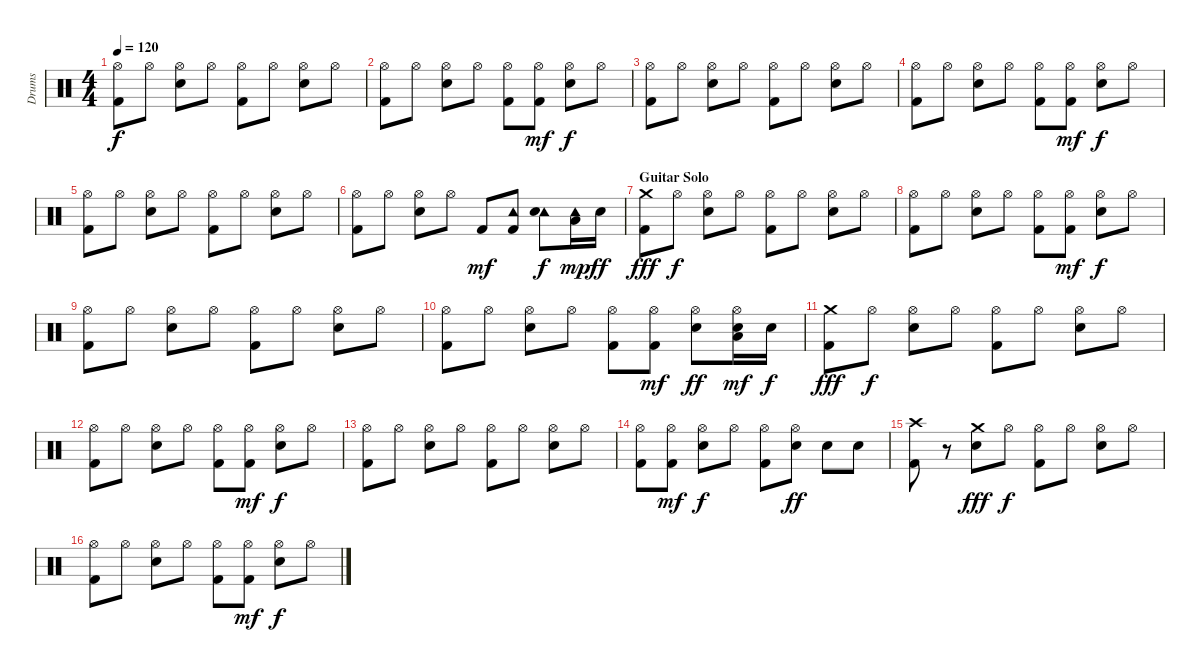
\track ("Drums" "Drums") {instrument percussion}
\staff {score}
\articulation defaults
\ts (4 4)
\tempo 120
\clef neutral
\ks c
("Hi-Hat (open)" "Kick (hit) 2").8{dy f} "Hi-Hat (open)".8 ("Hi-Hat (open)" "Electric Snare (hit)").8 "Hi-Hat (open)".8 ("Hi-Hat (open)" "Kick (hit) 2").8 "Hi-Hat (open)".8 ("Hi-Hat (open)" "Electric Snare (hit)").8 "Hi-Hat (open)".8 |
("Hi-Hat (open)" "Kick (hit) 2").8 "Hi-Hat (open)".8 ("Hi-Hat (open)" "Electric Snare (hit)").8 "Hi-Hat (open)".8 ("Hi-Hat (open)" "Kick (hit) 2").8 ("Hi-Hat (open)" "Kick (hit) 2").8{dy mf} ("Hi-Hat (open)" "Electric Snare (hit)").8{dy f} "Hi-Hat (open)".8 |
("Hi-Hat (open)" "Kick (hit) 2").8 "Hi-Hat (open)".8 ("Hi-Hat (open)" "Electric Snare (hit)").8 "Hi-Hat (open)".8 ("Hi-Hat (open)" "Kick (hit) 2").8 "Hi-Hat (open)".8 ("Hi-Hat (open)" "Electric Snare (hit)").8 "Hi-Hat (open)".8 |
("Hi-Hat (open)" "Kick (hit) 2").8 "Hi-Hat (open)".8 ("Hi-Hat (open)" "Electric Snare (hit)").8 "Hi-Hat (open)".8 ("Hi-Hat (open)" "Kick (hit) 2").8 ("Hi-Hat (open)" "Kick (hit) 2").8{dy mf} ("Hi-Hat (open)" "Electric Snare (hit)").8{dy f} "Hi-Hat (open)".8 |
("Hi-Hat (open)" "Kick (hit) 2").8 "Hi-Hat (open)".8 ("Hi-Hat (open)" "Electric Snare (hit)").8 "Hi-Hat (open)".8 ("Hi-Hat (open)" "Kick (hit) 2").8 "Hi-Hat (open)".8 ("Hi-Hat (open)" "Electric Snare (hit)").8 "Hi-Hat (open)".8 |
("Hi-Hat (open)" "Kick (hit) 2").8 "Hi-Hat (open)".8 ("Hi-Hat (open)" "Electric Snare (hit)").8 "Hi-Hat (open)".8 "Kick (hit) 2".8{dy mf} ("Tambourine (hit)" "Kick (hit) 2").8 ("Tambourine (hit)" "Electric Snare (hit)").8{dy f} ("Low Tom (hit)" "Tambourine (hit)").16{dy mp} "Electric Snare (hit)".16{dy ff} |
\section ("" "Guitar Solo")
("Crash medium (hit)" "Kick (hit) 2").8{dy fff} "Hi-Hat (open)".8{dy f} ("Hi-Hat (open)" "Electric Snare (hit)").8 "Hi-Hat (open)".8 ("Hi-Hat (open)" "Kick (hit) 2").8 "Hi-Hat (open)".8 ("Hi-Hat (open)" "Electric Snare (hit)").8 "Hi-Hat (open)".8 |
("Hi-Hat (open)" "Kick (hit) 2").8 "Hi-Hat (open)".8 ("Hi-Hat (open)" "Electric Snare (hit)").8 "Hi-Hat (open)".8 ("Hi-Hat (open)" "Kick (hit) 2").8 ("Hi-Hat (open)" "Kick (hit) 2").8{dy mf} ("Hi-Hat (open)" "Electric Snare (hit)").8{dy f} "Hi-Hat (open)".8 |
("Hi-Hat (open)" "Kick (hit) 2").8 "Hi-Hat (open)".8 ("Hi-Hat (open)" "Electric Snare (hit)").8 "Hi-Hat (open)".8 ("Hi-Hat (open)" "Kick (hit) 2").8 "Hi-Hat (open)".8 ("Hi-Hat (open)" "Electric Snare (hit)").8 "Hi-Hat (open)".8 |
("Hi-Hat (open)" "Kick (hit) 2").8 "Hi-Hat (open)".8 ("Hi-Hat (open)" "Electric Snare (hit)").8 "Hi-Hat (open)".8 ("Hi-Hat (open)" "Kick (hit) 2").8 ("Hi-Hat (open)" "Kick (hit) 2").8{dy mf} ("Hi-Hat (open)" "Electric Snare (hit)").8{dy ff} ("Hi-Hat (open)" "Electric Snare (hit)" "Low Tom (hit)").16{dy mf} "Electric Snare (hit)".16{dy f} |
("Crash medium (hit)" "Kick (hit) 2").8{dy fff} "Hi-Hat (open)".8{dy f} ("Hi-Hat (open)" "Electric Snare (hit)").8 "Hi-Hat (open)".8 ("Hi-Hat (open)" "Kick (hit) 2").8 "Hi-Hat (open)".8 ("Hi-Hat (open)" "Electric Snare (hit)").8 "Hi-Hat (open)".8 |
("Hi-Hat (open)" "Kick (hit) 2").8 "Hi-Hat (open)".8 ("Hi-Hat (open)" "Electric Snare (hit)").8 "Hi-Hat (open)".8 ("Hi-Hat (open)" "Kick (hit) 2").8 ("Hi-Hat (open)" "Kick (hit) 2").8{dy mf} ("Hi-Hat (open)" "Electric Snare (hit)").8{dy f} "Hi-Hat (open)".8 |
("Hi-Hat (open)" "Kick (hit) 2").8 "Hi-Hat (open)".8 ("Hi-Hat (open)" "Electric Snare (hit)").8 "Hi-Hat (open)".8 ("Hi-Hat (open)" "Kick (hit) 2").8 "Hi-Hat (open)".8 ("Hi-Hat (open)" "Electric Snare (hit)").8 "Hi-Hat (open)".8 |
("Hi-Hat (open)" "Kick (hit) 2").8 ("Hi-Hat (open)" "Kick (hit) 2").8{dy mf} ("Hi-Hat (open)" "Electric Snare (hit)").8{dy f} "Hi-Hat (open)".8 ("Hi-Hat (open)" "Kick (hit) 2").8 ("Hi-Hat (open)" "Electric Snare (hit)").8{dy ff} "Electric Snare (hit)".8 "Electric Snare (hit)".8 |
("Crash high (hit)" "Kick (hit) 2").8 r.8 ("Crash medium (hit)" "Electric Snare (hit)").8{dy fff} "Hi-Hat (open)".8{dy f} ("Hi-Hat (open)" "Kick (hit) 2").8 "Hi-Hat (open)".8 ("Hi-Hat (open)" "Electric Snare (hit)").8 "Hi-Hat (open)".8 |
("Hi-Hat (open)" "Kick (hit) 2").8 "Hi-Hat (open)".8 ("Hi-Hat (open)" "Electric Snare (hit)").8 "Hi-Hat (open)".8 ("Hi-Hat (open)" "Kick (hit) 2").8 ("Hi-Hat (open)" "Kick (hit) 2").8{dy mf} ("Hi-Hat (open)" "Electric Snare (hit)").8{dy f} "Hi-Hat (open)".8
